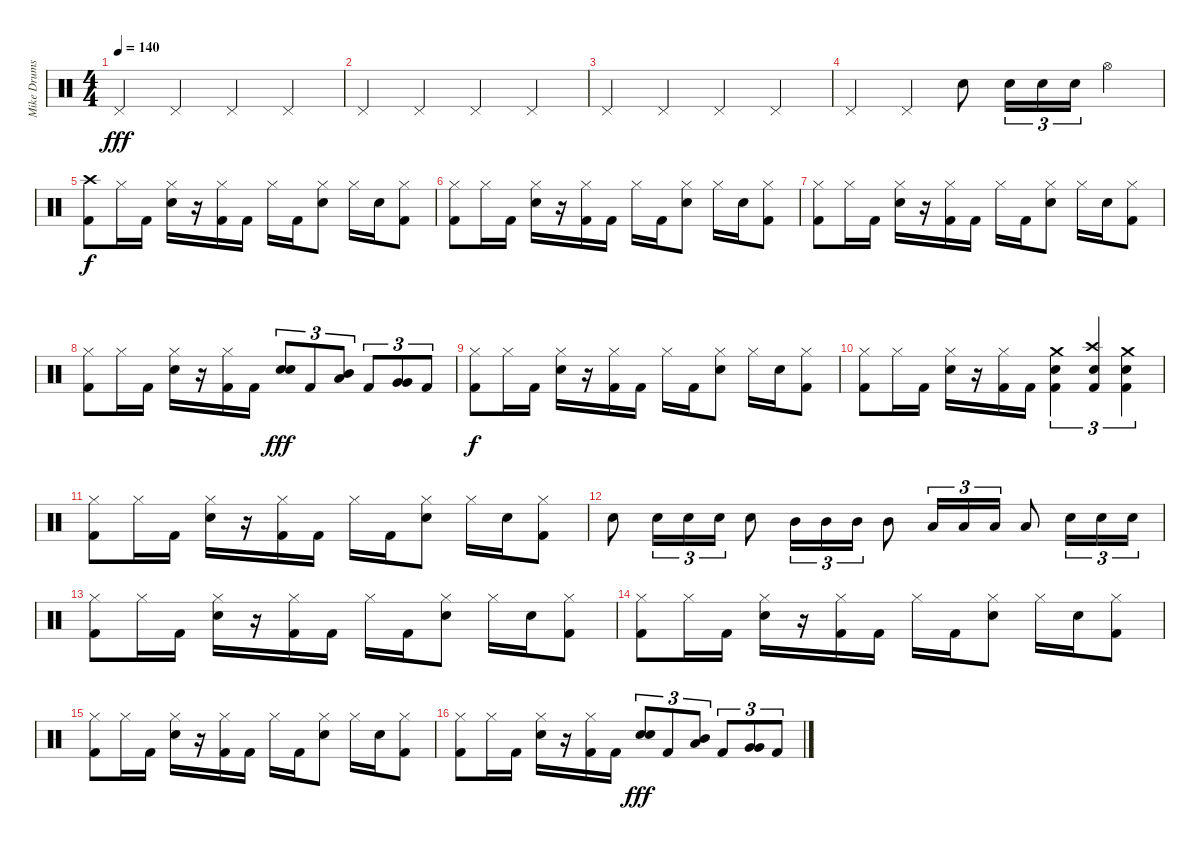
\track ("Mike Drums" "Mike Drums") {instrument percussion}
\staff {score}
\articulation defaults
\ts (4 4)
\tempo 140
\clef neutral
\ks c "Pedal Hi-Hat (hit)".4{dy fff} "Pedal Hi-Hat (hit)".4 "Pedal Hi-Hat (hit)".4 "Pedal Hi-Hat (hit)".4
|
"Pedal Hi-Hat (hit)".4 "Pedal Hi-Hat (hit)".4 "Pedal Hi-Hat (hit)".4 "Pedal Hi-Hat (hit)".4 |
"Pedal Hi-Hat (hit)".4 "Pedal Hi-Hat (hit)".4 "Pedal Hi-Hat (hit)".4 "Pedal Hi-Hat (hit)".4 |
"Pedal Hi-Hat (hit)".4 "Pedal Hi-Hat (hit)".4 "Electric Snare (hit)".8 "Electric Snare (hit)".16{tu (3 2)} "Electric Snare (hit)".16{tu (3 2)} "Electric Snare (hit)".16{tu (3 2)} "Hi-Hat (open)".4 |
("Crash high (hit)" "Kick (hit) 2").8{dy f} "Hi-Hat (closed)".16 "Kick (hit) 2".16 ("Hi-Hat (closed)" "Electric Snare (hit)").16 r.16 ("Hi-Hat (closed)" "Kick (hit) 2").16 "Kick (hit) 2".16 "Hi-Hat (closed)".16 "Kick (hit) 2".16 ("Hi-Hat (closed)" "Electric Snare (hit)").8 "Hi-Hat (closed)".16 "Electric Snare (hit)".16 ("Hi-Hat (closed)" "Kick (hit) 2").8 |
("Hi-Hat (closed)" "Kick (hit) 2").8 "Hi-Hat (closed)".16 "Kick (hit) 2".16 ("Hi-Hat (closed)" "Electric Snare (hit)").16 r.16 ("Hi-Hat (closed)" "Kick (hit) 2").16 "Kick (hit) 2".16 "Hi-Hat (closed)".16 "Kick (hit) 2".16 ("Hi-Hat (closed)" "Electric Snare (hit)").8 "Hi-Hat (closed)".16 "Electric Snare (hit)".16 ("Hi-Hat (closed)" "Kick (hit) 2").8 |
("Hi-Hat (closed)" "Kick (hit) 2").8 "Hi-Hat (closed)".16 "Kick (hit) 2".16 ("Hi-Hat (closed)" "Electric Snare (hit)").16 r.16 ("Hi-Hat (closed)" "Kick (hit) 2").16 "Kick (hit) 2".16 "Hi-Hat (closed)".16 "Kick (hit) 2".16 ("Hi-Hat (closed)" "Electric Snare (hit)").8 "Hi-Hat (closed)".16 "Electric Snare (hit)".16 ("Hi-Hat (closed)" "Kick (hit) 2").8 |
("Hi-Hat (closed)" "Kick (hit) 2").8 "Hi-Hat (closed)".16 "Kick (hit) 2".16 ("Hi-Hat (closed)" "Electric Snare (hit)").16 r.16 ("Hi-Hat (closed)" "Kick (hit) 2").16 "Kick (hit) 2".16 ("Electric Snare (hit)" "Electric Snare (hit)").8{tu (3 2) dy fff} "Kick (hit) 2".8{tu (3 2)} ("Mid Tom (hit)" "Low Tom (hit)").8{tu (3 2)} "Kick (hit) 2".8{tu (3 2)} ("Very Low Tom (hit)" "Very Low Tom (hit)").8{tu (3 2)} "Kick (hit) 2".8{tu (3 2)} |
("Hi-Hat (closed)" "Kick (hit) 2").8{dy f} "Hi-Hat (closed)".16 "Kick (hit) 2".16 ("Hi-Hat (closed)" "Electric Snare (hit)").16 r.16 ("Hi-Hat (closed)" "Kick (hit) 2").16 "Kick (hit) 2".16 "Hi-Hat (closed)".16 "Kick (hit) 2".16 ("Hi-Hat (closed)" "Electric Snare (hit)").8 "Hi-Hat (closed)".16 "Electric Snare (hit)".16 ("Hi-Hat (closed)" "Kick (hit) 2").8 |
("Hi-Hat (closed)" "Kick (hit) 2").8 "Hi-Hat (closed)".16 "Kick (hit) 2".16 ("Hi-Hat (closed)" "Electric Snare (hit)").16 r.16 ("Hi-Hat (closed)" "Kick (hit) 2").16 "Kick (hit) 2".16 ("Crash medium (hit)" "Electric Snare (hit)" "Kick (hit) 2").4{tu (3 2)} ("Crash high (hit)" "Electric Snare (hit)" "Kick (hit) 2").4{tu (3 2)} ("Crash medium (hit)" "Electric Snare (hit)" "Kick (hit) 2").4{tu (3 2)} |
("Hi-Hat (closed)" "Kick (hit) 2").8 "Hi-Hat (closed)".16 "Kick (hit) 2".16 ("Hi-Hat (closed)" "Electric Snare (hit)").16 r.16 ("Hi-Hat (closed)" "Kick (hit) 2").16 "Kick (hit) 2".16 "Hi-Hat (closed)".16 "Kick (hit) 2".16 ("Hi-Hat (closed)" "Electric Snare (hit)").8 "Hi-Hat (closed)".16 "Electric Snare (hit)".16 ("Hi-Hat (closed)" "Kick (hit) 2").8 |
"Electric Snare (hit)".8 "Electric Snare (hit)".16{tu (3 2)} "Electric Snare (hit)".16{tu (3 2)} "Electric Snare (hit)".16{tu (3 2)} "Electric Snare (hit)".8 "Mid Tom (hit)".16{tu (3 2)} "Mid Tom (hit)".16{tu (3 2)} "Mid Tom (hit)".16{tu (3 2)} "Mid Tom (hit)".8 "Low Tom (hit)".16{tu (3 2)} "Low Tom (hit)".16{tu (3 2)} "Low Tom (hit)".16{tu (3 2)} "Low Tom (hit)".8 "Electric Snare (hit)".16{tu (3 2)} "Electric Snare (hit)".16{tu (3 2)} "Electric Snare (hit)".16{tu (3 2)} |
("Hi-Hat (closed)" "Kick (hit) 2").8 "Hi-Hat (closed)".16 "Kick (hit) 2".16 ("Hi-Hat (closed)" "Electric Snare (hit)").16 r.16 ("Hi-Hat (closed)" "Kick (hit) 2").16 "Kick (hit) 2".16 "Hi-Hat (closed)".16 "Kick (hit) 2".16 ("Hi-Hat (closed)" "Electric Snare (hit)").8 "Hi-Hat (closed)".16 "Electric Snare (hit)".16 ("Hi-Hat (closed)" "Kick (hit) 2").8 |
("Hi-Hat (closed)" "Kick (hit) 2").8 "Hi-Hat (closed)".16 "Kick (hit) 2".16 ("Hi-Hat (closed)" "Electric Snare (hit)").16 r.16 ("Hi-Hat (closed)" "Kick (hit) 2").16 "Kick (hit) 2".16 "Hi-Hat (closed)".16 "Kick (hit) 2".16 ("Hi-Hat (closed)" "Electric Snare (hit)").8 "Hi-Hat (closed)".16 "Electric Snare (hit)".16 ("Hi-Hat (closed)" "Kick (hit) 2").8 |
("Hi-Hat (closed)" "Kick (hit) 2").8 "Hi-Hat (closed)".16 "Kick (hit) 2".16 ("Hi-Hat (closed)" "Electric Snare (hit)").16 r.16 ("Hi-Hat (closed)" "Kick (hit) 2").16 "Kick (hit) 2".16 "Hi-Hat (closed)".16 "Kick (hit) 2".16 ("Hi-Hat (closed)" "Electric Snare (hit)").8 "Hi-Hat (closed)".16 "Electric Snare (hit)".16 ("Hi-Hat (closed)" "Kick (hit) 2").8 |
("Hi-Hat (closed)" "Kick (hit) 2").8 "Hi-Hat (closed)".16 "Kick (hit) 2".16 ("Hi-Hat (closed)" "Electric Snare (hit)").16 r.16 ("Hi-Hat (closed)" "Kick (hit) 2").16 "Kick (hit) 2".16 ("Electric Snare (hit)" "Electric Snare (hit)").8{tu (3 2) dy fff} "Kick (hit) 2".8{tu (3 2)} ("Mid Tom (hit)" "Low Tom (hit)").8{tu (3 2)} "Kick (hit) 2".8{tu (3 2)} ("Very Low Tom (hit)" "Very Low Tom (hit)").8{tu (3 2)} "Kick (hit) 2".8{tu (3 2)}
